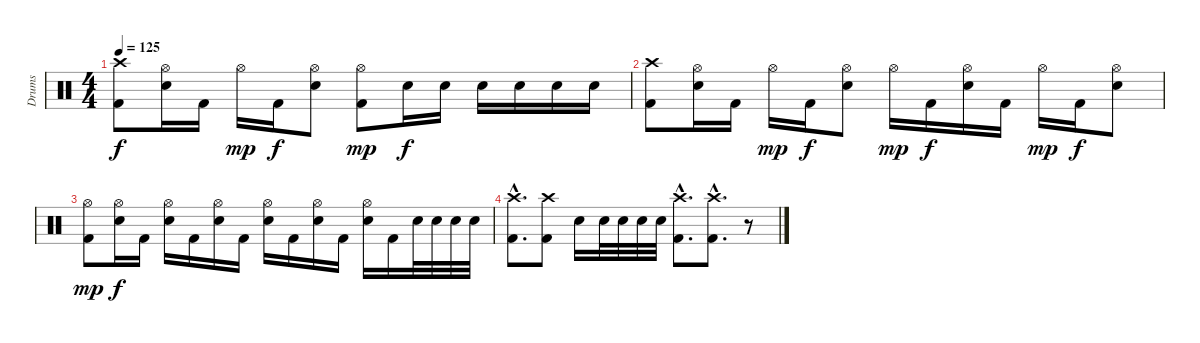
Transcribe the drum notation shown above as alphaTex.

\track ("Drums" "Drums") {instrument percussion}
\staff {score}
\articulation defaults
\ts (4 4)
\tempo 125
\clef neutral
\ks c
("Crash high (hit)" "Kick (hit) 2").8{dy f} ("Hi-Hat (open)" "Electric Snare (hit)").16 "Kick (hit) 2".16 "Hi-Hat (open)".16{dy mp} "Kick (hit) 2".16{dy f} ("Hi-Hat (open)" "Electric Snare (hit)").8 ("Hi-Hat (open)" "Kick (hit) 2").8{dy mp} "Electric Snare (hit)".16{dy f} "Electric Snare (hit)".16 "Electric Snare (hit)".16 "Electric Snare (hit)".16 "Electric Snare (hit)".16 "Electric Snare (hit)".16 |
("Crash high (hit)" "Kick (hit) 2").8 ("Hi-Hat (open)" "Electric Snare (hit)").16 "Kick (hit) 2".16 "Hi-Hat (open)".16{dy mp} "Kick (hit) 2".16{dy f} ("Hi-Hat (open)" "Electric Snare (hit)").8 "Hi-Hat (open)".16{dy mp} "Kick (hit) 2".16{dy f} ("Hi-Hat (open)" "Electric Snare (hit)").16 "Kick (hit) 2".16 "Hi-Hat (open)".16{dy mp} "Kick (hit) 2".16{dy f} ("Hi-Hat (open)" "Electric Snare (hit)").8 |
("Hi-Hat (open)" "Kick (hit) 2").8{dy mp} ("Hi-Hat (open)" "Electric Snare (hit)").16{dy f} "Kick (hit) 2".16 ("Hi-Hat (open)" "Electric Snare (hit)").16 "Kick (hit) 2".16 ("Hi-Hat (open)" "Electric Snare (hit)").16 "Kick (hit) 2".16 ("Hi-Hat (open)" "Electric Snare (hit)").16 "Kick (hit) 2".16 ("Hi-Hat (open)" "Electric Snare (hit)").16 "Kick (hit) 2".16 ("Hi-Hat (open)" "Electric Snare (hit)").16 "Kick (hit) 2".16 "Electric Snare (hit)".32 "Electric Snare (hit)".32 "Electric Snare (hit)".32 "Electric Snare (hit)".32 |
("Crash high (hit)"{hac} "Kick (hit) 2"{hac}).8{d} ("Crash high (hit)" "Kick (hit) 2").8 "Electric Snare (hit)".16 "Electric Snare (hit)".32 "Electric Snare (hit)".32 "Electric Snare (hit)".32 "Electric Snare (hit)".32 ("Crash high (hit)"{hac} "Kick (hit) 2"{hac}).8{d} ("Crash high (hit)"{hac} "Kick (hit) 2"{hac}).8{d} r.8
